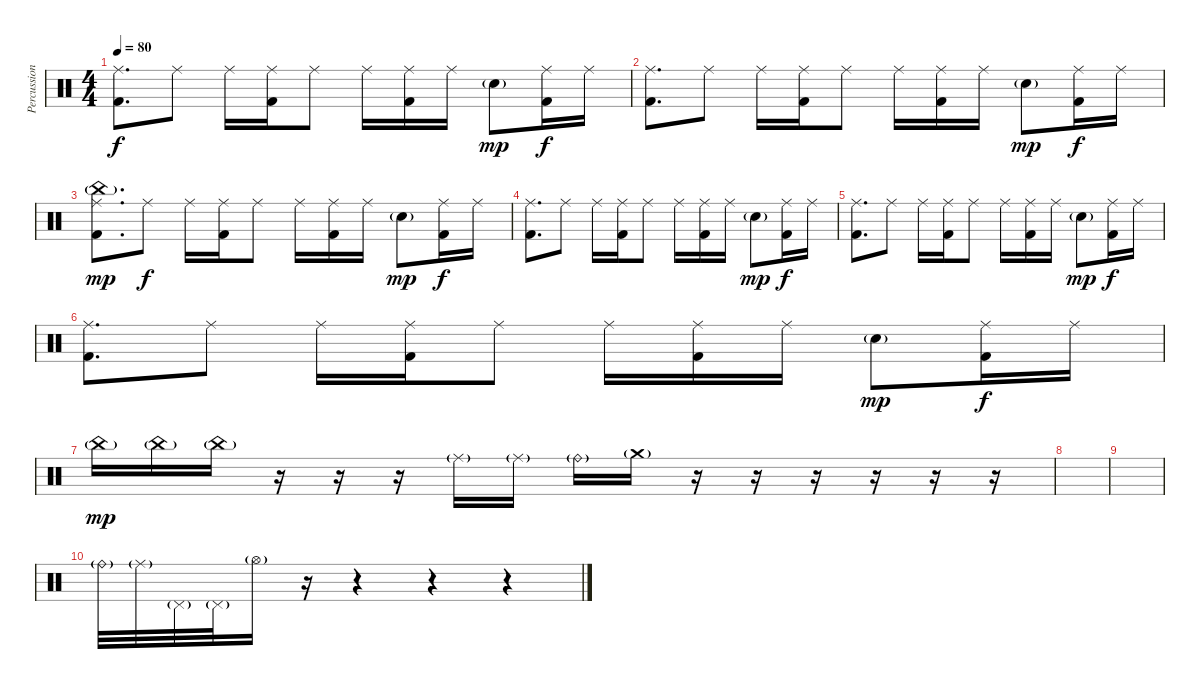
\track ("Percussion" "Percussion") {instrument percussion}
\staff {score}
\articulation defaults
\ts (4 4)
\tempo 80
\clef neutral
\ks c
("Ride (middle)" "Kick (hit) 2").8{d dy f} "Ride (middle)".8 "Ride (middle)".16 ("Ride (middle)" "Kick (hit) 2").16 "Ride (middle)".8 "Ride (middle)".16 ("Ride (middle)" "Kick (hit) 2").16 "Ride (middle)".16 "Snare (hit) 2"{g}.8{dy mp} ("Ride (middle)" "Kick (hit) 2").16{dy f} "Ride (middle)".16 |
("Ride (middle)" "Kick (hit) 2").8{d} "Ride (middle)".8 "Ride (middle)".16 ("Ride (middle)" "Kick (hit) 2").16 "Ride (middle)".8 "Ride (middle)".16 ("Ride (middle)" "Kick (hit) 2").16 "Ride (middle)".16 "Snare (hit) 2"{g}.8{dy mp} ("Ride (middle)" "Kick (hit) 2").16{dy f} "Ride (middle)".16 |
("China (hit)"{g} "Ride (middle)" "Kick (hit) 2").8{d dy mp} "Ride (middle)".8{dy f} "Ride (middle)".16 ("Ride (middle)" "Kick (hit) 2").16 "Ride (middle)".8 "Ride (middle)".16 ("Ride (middle)" "Kick (hit) 2").16 "Ride (middle)".16 "Snare (hit) 2"{g}.8{dy mp} ("Ride (middle)" "Kick (hit) 2").16{dy f} "Ride (middle)".16 |
("Ride (middle)" "Kick (hit) 2").8{d} "Ride (middle)".8 "Ride (middle)".16 ("Ride (middle)" "Kick (hit) 2").16 "Ride (middle)".8 "Ride (middle)".16 ("Ride (middle)" "Kick (hit) 2").16 "Ride (middle)".16 "Snare (hit) 2"{g}.8{dy mp} ("Ride (middle)" "Kick (hit) 2").16{dy f} "Ride (middle)".16 |
("Ride (middle)" "Kick (hit) 2").8{d} "Ride (middle)".8 "Ride (middle)".16 ("Ride (middle)" "Kick (hit) 2").16 "Ride (middle)".8 "Ride (middle)".16 ("Ride (middle)" "Kick (hit) 2").16 "Ride (middle)".16 "Snare (hit) 2"{g}.8{dy mp} ("Ride (middle)" "Kick (hit) 2").16{dy f} "Ride (middle)".16 |
("Ride (middle)" "Kick (hit) 2").8{d} "Ride (middle)".8 "Ride (middle)".16 ("Ride (middle)" "Kick (hit) 2").16 "Ride (middle)".8 "Ride (middle)".16 ("Ride (middle)" "Kick (hit) 2").16 "Ride (middle)".16 "Snare (hit) 2"{g}.8{dy mp} ("Ride (middle)" "Kick (hit) 2").16{dy f} "Ride (middle)".16 |
"China (hit)"{g}.16{dy mp} "China (hit)"{g}.16 "China (hit)"{g}.16 r.16 r.16 r.16 "Ride (middle)"{g}.16 "Ride (middle)"{g}.16 "Ride (bell)"{g}.16 "Crash medium (hit)"{g}.16 r.16 r.16 r.16 r.16 r.16 r.16 |
|
|
"Ride (bell)"{g}.32 "Ride (middle)"{g}.32 "Pedal Hi-Hat (hit)"{g}.32 "Pedal Hi-Hat (hit)"{g}.32 "Hi-Hat (open)"{g}.16 r.16 r.4 r.4 r.4
